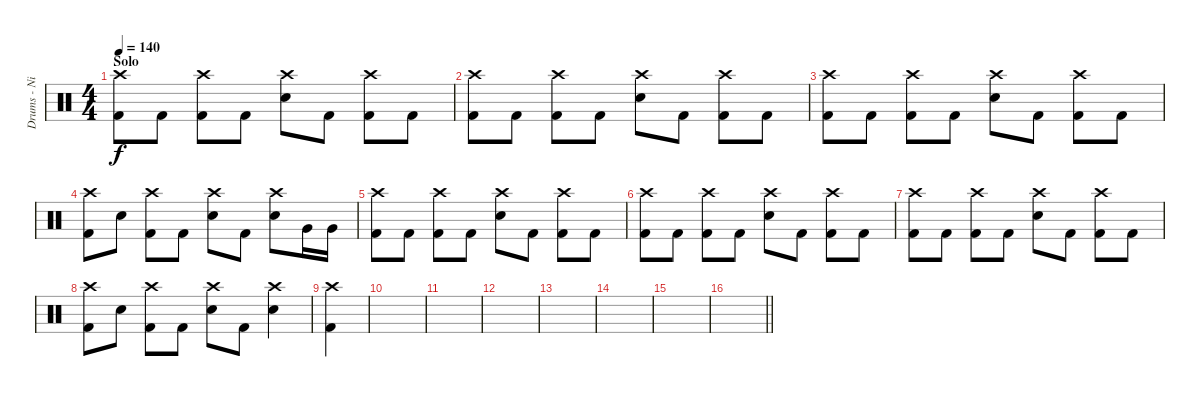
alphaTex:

\track ("Drums - Nick" "Drums - Ni") {instrument percussion}
\staff {score}
\articulation defaults
\ts (4 4)
\section ("" "Solo")
\tempo 140
\clef neutral
\ks c
("Crash high (hit)" "Kick (hit) 2").8{dy f} "Kick (hit) 2".8 ("Crash high (hit)" "Kick (hit) 2").8 "Kick (hit) 2".8 ("Crash high (hit)" "Snare (hit) 2").8 "Kick (hit) 2".8 ("Crash high (hit)" "Kick (hit) 2").8 "Kick (hit) 2".8 |
("Crash high (hit)" "Kick (hit) 2").8 "Kick (hit) 2".8 ("Crash high (hit)" "Kick (hit) 2").8 "Kick (hit) 2".8 ("Crash high (hit)" "Snare (hit) 2").8 "Kick (hit) 2".8 ("Crash high (hit)" "Kick (hit) 2").8 "Kick (hit) 2".8 |
("Crash high (hit)" "Kick (hit) 2").8 "Kick (hit) 2".8 ("Crash high (hit)" "Kick (hit) 2").8 "Kick (hit) 2".8 ("Crash high (hit)" "Snare (hit) 2").8 "Kick (hit) 2".8 ("Crash high (hit)" "Kick (hit) 2").8 "Kick (hit) 2".8 |
("Crash high (hit)" "Kick (hit) 2").8 "Snare (hit) 2".8 ("Crash high (hit)" "Kick (hit) 2").8 "Kick (hit) 2".8 ("Crash high (hit)" "Snare (hit) 2").8 "Kick (hit) 2".8 ("Crash high (hit)" "Snare (hit) 2").8 "Very Low Tom (hit)".16 "Very Low Tom (hit)".16 |
("Crash high (hit)" "Kick (hit) 2").8 "Kick (hit) 2".8 ("Crash high (hit)" "Kick (hit) 2").8 "Kick (hit) 2".8 ("Crash high (hit)" "Snare (hit) 2").8 "Kick (hit) 2".8 ("Crash high (hit)" "Kick (hit) 2").8 "Kick (hit) 2".8 |
("Crash high (hit)" "Kick (hit) 2").8 "Kick (hit) 2".8 ("Crash high (hit)" "Kick (hit) 2").8 "Kick (hit) 2".8 ("Crash high (hit)" "Snare (hit) 2").8 "Kick (hit) 2".8 ("Crash high (hit)" "Kick (hit) 2").8 "Kick (hit) 2".8 |
("Crash high (hit)" "Kick (hit) 2").8 "Kick (hit) 2".8 ("Crash high (hit)" "Kick (hit) 2").8 "Kick (hit) 2".8 ("Crash high (hit)" "Snare (hit) 2").8 "Kick (hit) 2".8 ("Crash high (hit)" "Kick (hit) 2").8 "Kick (hit) 2".8 |
("Crash high (hit)" "Kick (hit) 2").8 "Snare (hit) 2".8 ("Crash high (hit)" "Kick (hit) 2").8 "Kick (hit) 2".8 ("Crash high (hit)" "Snare (hit) 2").8 "Kick (hit) 2".8 ("Crash high (hit)" "Snare (hit) 2").4 |
("Crash high (hit)" "Kick (hit) 2").4 |
|
|
|
|
|
|
\barLineRight lightlight
